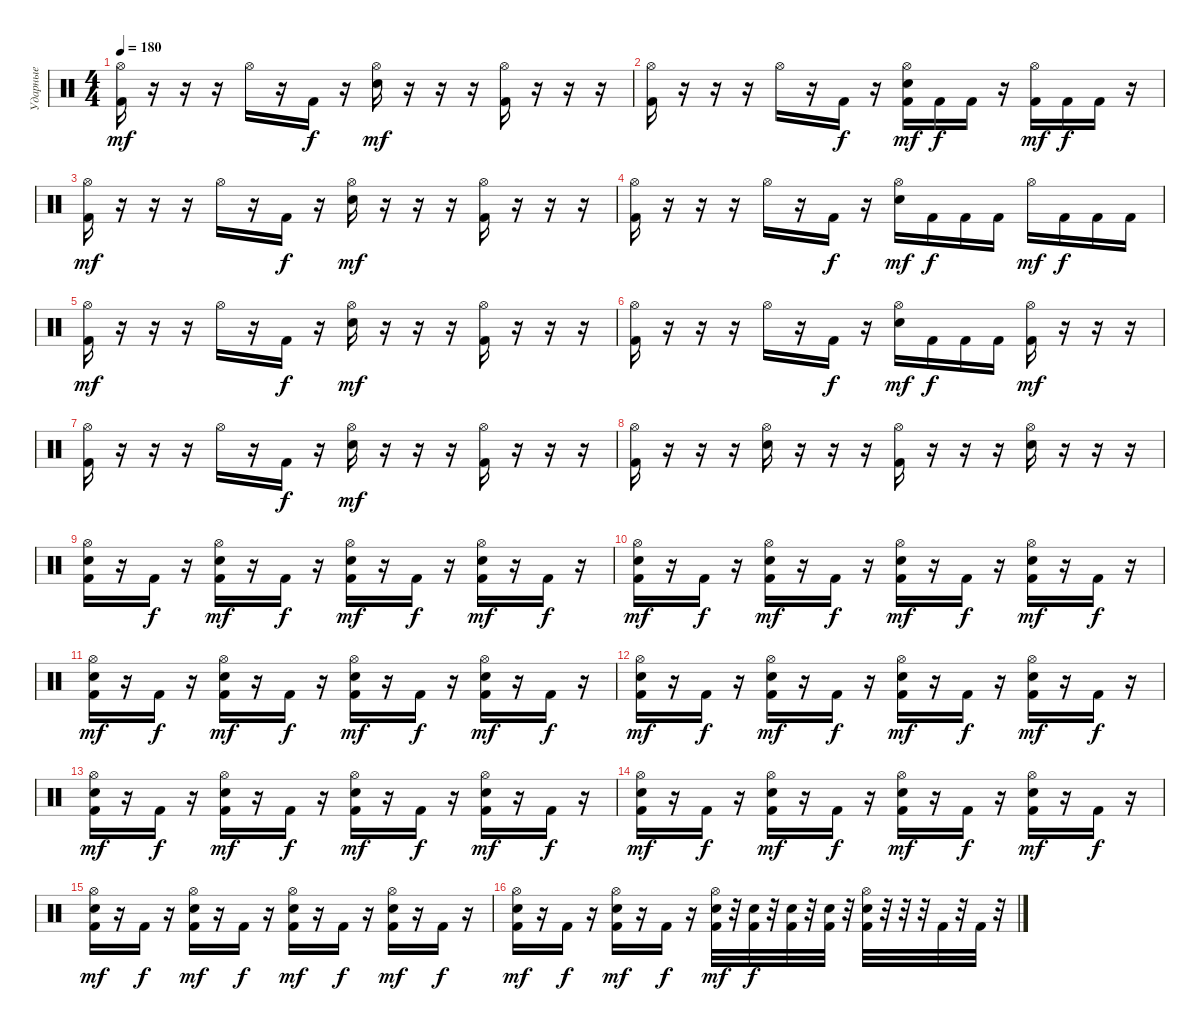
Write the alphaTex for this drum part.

\track ("Ударные" "Ударные") {instrument percussion}
\staff {score}
\articulation defaults
\ts (4 4)
\tempo 180
\clef neutral
\ks c
("Hi-Hat (open)" "Kick (hit) 2").16{dy mf} r.16 r.16 r.16 "Hi-Hat (open)".16 r.16 "Kick (hit) 2".16{dy f} r.16 ("Hi-Hat (open)" "Snare (hit) 2").16{dy mf} r.16 r.16 r.16 ("Hi-Hat (open)" "Kick (hit) 2").16 r.16 r.16 r.16 |
("Hi-Hat (open)" "Kick (hit) 2").16 r.16 r.16 r.16 "Hi-Hat (open)".16 r.16 "Kick (hit) 2".16{dy f} r.16 ("Hi-Hat (open)" "Snare (hit) 2" "Kick (hit) 2").16{dy mf} "Kick (hit) 2".16{dy f} "Kick (hit) 2".16 r.16 ("Hi-Hat (open)" "Kick (hit) 2").16{dy mf} "Kick (hit) 2".16{dy f} "Kick (hit) 2".16 r.16 |
("Hi-Hat (open)" "Kick (hit) 2").16{dy mf} r.16 r.16 r.16 "Hi-Hat (open)".16 r.16 "Kick (hit) 2".16{dy f} r.16 ("Hi-Hat (open)" "Snare (hit) 2").16{dy mf} r.16 r.16 r.16 ("Hi-Hat (open)" "Kick (hit) 2").16 r.16 r.16 r.16 |
("Hi-Hat (open)" "Kick (hit) 2").16 r.16 r.16 r.16 "Hi-Hat (open)".16 r.16 "Kick (hit) 2".16{dy f} r.16 ("Hi-Hat (open)" "Snare (hit) 2").16{dy mf} "Kick (hit) 2".16{dy f} "Kick (hit) 2".16 "Kick (hit) 2".16 "Hi-Hat (open)".16{dy mf} "Kick (hit) 2".16{dy f} "Kick (hit) 2".16 "Kick (hit) 2".16 |
("Hi-Hat (open)" "Kick (hit) 2").16{dy mf} r.16 r.16 r.16 "Hi-Hat (open)".16 r.16 "Kick (hit) 2".16{dy f} r.16 ("Hi-Hat (open)" "Snare (hit) 2").16{dy mf} r.16 r.16 r.16 ("Hi-Hat (open)" "Kick (hit) 2").16 r.16 r.16 r.16 |
("Hi-Hat (open)" "Kick (hit) 2").16 r.16 r.16 r.16 "Hi-Hat (open)".16 r.16 "Kick (hit) 2".16{dy f} r.16 ("Hi-Hat (open)" "Snare (hit) 2").16{dy mf} "Kick (hit) 2".16{dy f} "Kick (hit) 2".16 "Kick (hit) 2".16 ("Hi-Hat (open)" "Kick (hit) 2").16{dy mf} r.16 r.16 r.16 |
("Hi-Hat (open)" "Kick (hit) 2").16 r.16 r.16 r.16 "Hi-Hat (open)".16 r.16 "Kick (hit) 2".16{dy f} r.16 ("Hi-Hat (open)" "Snare (hit) 2").16{dy mf} r.16 r.16 r.16 ("Hi-Hat (open)" "Kick (hit) 2").16 r.16 r.16 r.16 |
("Hi-Hat (open)" "Kick (hit) 2").16 r.16 r.16 r.16 ("Hi-Hat (open)" "Snare (hit) 2").16 r.16 r.16 r.16 ("Hi-Hat (open)" "Kick (hit) 2").16 r.16 r.16 r.16 ("Hi-Hat (open)" "Snare (hit) 2").16 r.16 r.16 r.16 |
("Hi-Hat (open)" "Snare (hit) 2" "Kick (hit) 2").16 r.16 "Kick (hit) 2".16{dy f} r.16 ("Hi-Hat (open)" "Snare (hit) 2" "Kick (hit) 2").16{dy mf} r.16 "Kick (hit) 2".16{dy f} r.16 ("Hi-Hat (open)" "Snare (hit) 2" "Kick (hit) 2").16{dy mf} r.16 "Kick (hit) 2".16{dy f} r.16 ("Hi-Hat (open)" "Snare (hit) 2" "Kick (hit) 2").16{dy mf} r.16 "Kick (hit) 2".16{dy f} r.16 |
("Hi-Hat (open)" "Snare (hit) 2" "Kick (hit) 2").16{dy mf} r.16 "Kick (hit) 2".16{dy f} r.16 ("Hi-Hat (open)" "Snare (hit) 2" "Kick (hit) 2").16{dy mf} r.16 "Kick (hit) 2".16{dy f} r.16 ("Hi-Hat (open)" "Snare (hit) 2" "Kick (hit) 2").16{dy mf} r.16 "Kick (hit) 2".16{dy f} r.16 ("Hi-Hat (open)" "Snare (hit) 2" "Kick (hit) 2").16{dy mf} r.16 "Kick (hit) 2".16{dy f} r.16 |
("Hi-Hat (open)" "Snare (hit) 2" "Kick (hit) 2").16{dy mf} r.16 "Kick (hit) 2".16{dy f} r.16 ("Hi-Hat (open)" "Snare (hit) 2" "Kick (hit) 2").16{dy mf} r.16 "Kick (hit) 2".16{dy f} r.16 ("Hi-Hat (open)" "Snare (hit) 2" "Kick (hit) 2").16{dy mf} r.16 "Kick (hit) 2".16{dy f} r.16 ("Hi-Hat (open)" "Snare (hit) 2" "Kick (hit) 2").16{dy mf} r.16 "Kick (hit) 2".16{dy f} r.16 |
("Hi-Hat (open)" "Snare (hit) 2" "Kick (hit) 2").16{dy mf} r.16 "Kick (hit) 2".16{dy f} r.16 ("Hi-Hat (open)" "Snare (hit) 2" "Kick (hit) 2").16{dy mf} r.16 "Kick (hit) 2".16{dy f} r.16 ("Hi-Hat (open)" "Snare (hit) 2" "Kick (hit) 2").16{dy mf} r.16 "Kick (hit) 2".16{dy f} r.16 ("Hi-Hat (open)" "Snare (hit) 2" "Kick (hit) 2").16{dy mf} r.16 "Kick (hit) 2".16{dy f} r.16 |
("Hi-Hat (open)" "Snare (hit) 2" "Kick (hit) 2").16{dy mf} r.16 "Kick (hit) 2".16{dy f} r.16 ("Hi-Hat (open)" "Snare (hit) 2" "Kick (hit) 2").16{dy mf} r.16 "Kick (hit) 2".16{dy f} r.16 ("Hi-Hat (open)" "Snare (hit) 2" "Kick (hit) 2").16{dy mf} r.16 "Kick (hit) 2".16{dy f} r.16 ("Hi-Hat (open)" "Snare (hit) 2" "Kick (hit) 2").16{dy mf} r.16 "Kick (hit) 2".16{dy f} r.16 |
("Hi-Hat (open)" "Snare (hit) 2" "Kick (hit) 2").16{dy mf} r.16 "Kick (hit) 2".16{dy f} r.16 ("Hi-Hat (open)" "Snare (hit) 2" "Kick (hit) 2").16{dy mf} r.16 "Kick (hit) 2".16{dy f} r.16 ("Hi-Hat (open)" "Snare (hit) 2" "Kick (hit) 2").16{dy mf} r.16 "Kick (hit) 2".16{dy f} r.16 ("Hi-Hat (open)" "Snare (hit) 2" "Kick (hit) 2").16{dy mf} r.16 "Kick (hit) 2".16{dy f} r.16 |
("Hi-Hat (open)" "Snare (hit) 2" "Kick (hit) 2").16{dy mf} r.16 "Kick (hit) 2".16{dy f} r.16 ("Hi-Hat (open)" "Snare (hit) 2" "Kick (hit) 2").16{dy mf} r.16 "Kick (hit) 2".16{dy f} r.16 ("Hi-Hat (open)" "Snare (hit) 2" "Kick (hit) 2").16{dy mf} r.16 "Kick (hit) 2".16{dy f} r.16 ("Hi-Hat (open)" "Snare (hit) 2" "Kick (hit) 2").16{dy mf} r.16 "Kick (hit) 2".16{dy f} r.16 |
("Hi-Hat (open)" "Snare (hit) 2" "Kick (hit) 2").16{dy mf} r.16 "Kick (hit) 2".16{dy f} r.16 ("Hi-Hat (open)" "Snare (hit) 2" "Kick (hit) 2").16{dy mf} r.16 "Kick (hit) 2".16{dy f} r.16 ("Hi-Hat (open)" "Snare (hit) 2" "Kick (hit) 2").32{dy mf} r.32 ("Snare (hit) 2" "Kick (hit) 2").32{dy f} r.32 ("Snare (hit) 2" "Kick (hit) 2").32 r.32 ("Snare (hit) 2" "Kick (hit) 2").32 r.32 ("Hi-Hat (open)" "Snare (hit) 2" "Kick (hit) 2").32 r.32 r.32 r.32 "Kick (hit) 2".32 r.32 "Kick (hit) 2".32 r.32
